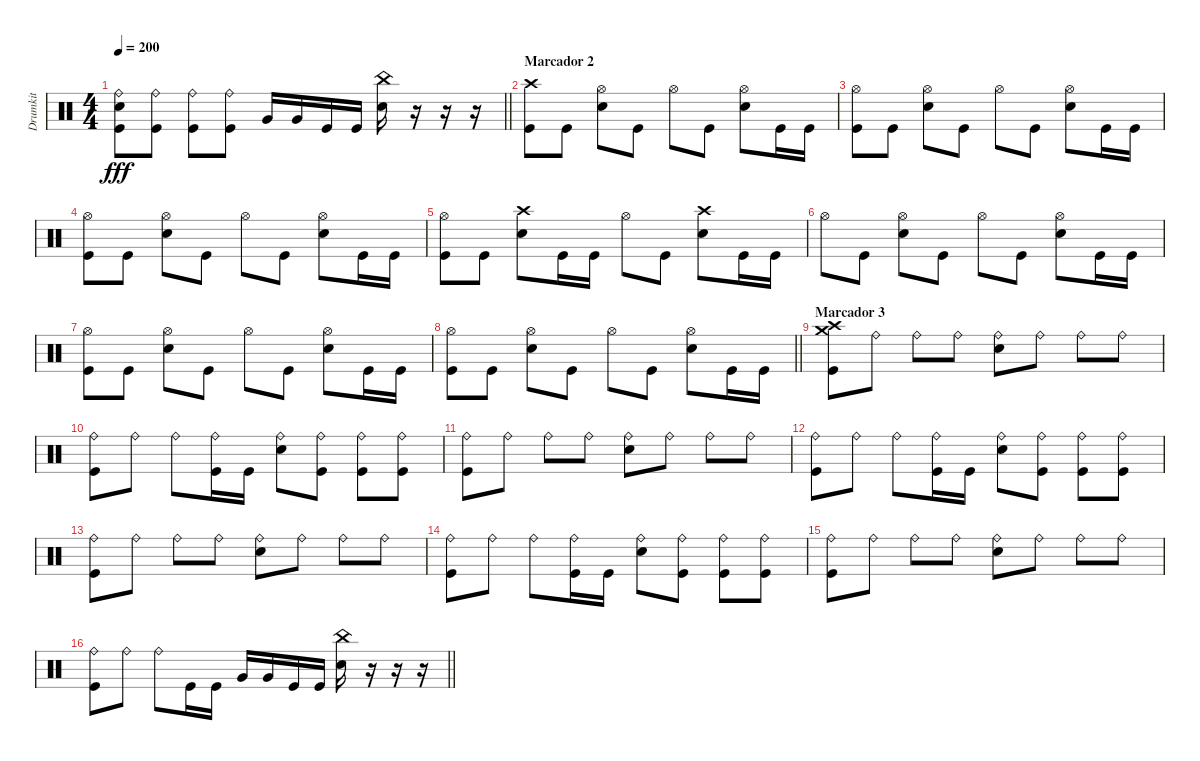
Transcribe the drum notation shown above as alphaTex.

\track ("Drumkit" "Drumkit") {instrument percussion}
\staff {score}
\articulation defaults
\ts (4 4)
\tempo 200
\clef neutral
\barLineRight lightlight
\ks c
("Snare (hit) 2" "Ride (bell)" "Kick (hit)").8{dy fff} ("Ride (bell)" "Kick (hit)").8 ("Ride (bell)" "Kick (hit)").8 ("Ride (bell)" "Kick (hit)").8 "Very Low Tom (hit)".16 "Very Low Tom (hit)".16 "Kick (hit)".16 "Kick (hit)".16 ("China (hit)" "Snare (hit) 2").16 r.16 r.16 r.16 |
\section ("" "Marcador 2")
("Crash high (hit)" "Kick (hit)").8 "Kick (hit)".8 ("Hi-Hat (open)" "Snare (hit) 2").8 "Kick (hit)".8 "Hi-Hat (open)".8 "Kick (hit)".8 ("Hi-Hat (open)" "Snare (hit) 2").8 "Kick (hit)".16 "Kick (hit)".16 |
("Hi-Hat (open)" "Kick (hit)").8 "Kick (hit)".8 ("Hi-Hat (open)" "Snare (hit) 2").8 "Kick (hit)".8 "Hi-Hat (open)".8 "Kick (hit)".8 ("Hi-Hat (open)" "Snare (hit) 2").8 "Kick (hit)".16 "Kick (hit)".16 |
("Hi-Hat (open)" "Kick (hit)").8 "Kick (hit)".8 ("Hi-Hat (open)" "Snare (hit) 2").8 "Kick (hit)".8 "Hi-Hat (open)".8 "Kick (hit)".8 ("Hi-Hat (open)" "Snare (hit) 2").8 "Kick (hit)".16 "Kick (hit)".16 |
("Hi-Hat (open)" "Kick (hit)").8 "Kick (hit)".8 ("Crash high (hit)" "Snare (hit) 2").8 "Kick (hit)".16 "Kick (hit)".16 "Hi-Hat (open)".8 "Kick (hit)".8 ("Crash high (hit)" "Snare (hit) 2").8 "Kick (hit)".16 "Kick (hit)".16 |
"Hi-Hat (open)".8 "Kick (hit)".8 ("Hi-Hat (open)" "Snare (hit) 2").8 "Kick (hit)".8 "Hi-Hat (open)".8 "Kick (hit)".8 ("Hi-Hat (open)" "Snare (hit) 2").8 "Kick (hit)".16 "Kick (hit)".16 |
("Hi-Hat (open)" "Kick (hit)").8 "Kick (hit)".8 ("Hi-Hat (open)" "Snare (hit) 2").8 "Kick (hit)".8 "Hi-Hat (open)".8 "Kick (hit)".8 ("Hi-Hat (open)" "Snare (hit) 2").8 "Kick (hit)".16 "Kick (hit)".16 |
\barLineRight lightlight
("Hi-Hat (open)" "Kick (hit)").8 "Kick (hit)".8 ("Hi-Hat (open)" "Snare (hit) 2").8 "Kick (hit)".8 "Hi-Hat (open)".8 "Kick (hit)".8 ("Hi-Hat (open)" "Snare (hit) 2").8 "Kick (hit)".16 "Kick (hit)".16 |
\section ("" "Marcador 3")
("Crash high (hit)" "Crash medium (hit)" "Kick (hit)").8 "Ride (bell)".8 "Ride (bell)".8 "Ride (bell)".8 ("Ride (bell)" "Snare (hit) 2").8 "Ride (bell)".8 "Ride (bell)".8 "Ride (bell)".8 |
("Ride (bell)" "Kick (hit)").8 "Ride (bell)".8 "Ride (bell)".8 ("Ride (bell)" "Kick (hit)").16 "Kick (hit)".16 ("Ride (bell)" "Snare (hit) 2").8 ("Ride (bell)" "Kick (hit)").8 ("Ride (bell)" "Kick (hit)").8 ("Ride (bell)" "Kick (hit)").8 |
("Ride (bell)" "Kick (hit)").8 "Ride (bell)".8 "Ride (bell)".8 "Ride (bell)".8 ("Ride (bell)" "Snare (hit) 2").8 "Ride (bell)".8 "Ride (bell)".8 "Ride (bell)".8 |
("Ride (bell)" "Kick (hit)").8 "Ride (bell)".8 "Ride (bell)".8 ("Ride (bell)" "Kick (hit)").16 "Kick (hit)".16 ("Ride (bell)" "Snare (hit) 2").8 ("Ride (bell)" "Kick (hit)").8 ("Ride (bell)" "Kick (hit)").8 ("Ride (bell)" "Kick (hit)").8 |
("Ride (bell)" "Kick (hit)").8 "Ride (bell)".8 "Ride (bell)".8 "Ride (bell)".8 ("Ride (bell)" "Snare (hit) 2").8 "Ride (bell)".8 "Ride (bell)".8 "Ride (bell)".8 |
("Ride (bell)" "Kick (hit)").8 "Ride (bell)".8 "Ride (bell)".8 ("Ride (bell)" "Kick (hit)").16 "Kick (hit)".16 ("Ride (bell)" "Snare (hit) 2").8 ("Ride (bell)" "Kick (hit)").8 ("Ride (bell)" "Kick (hit)").8 ("Ride (bell)" "Kick (hit)").8 |
("Ride (bell)" "Kick (hit)").8 "Ride (bell)".8 "Ride (bell)".8 "Ride (bell)".8 ("Ride (bell)" "Snare (hit) 2").8 "Ride (bell)".8 "Ride (bell)".8 "Ride (bell)".8 |
\barLineRight lightlight
("Ride (bell)" "Kick (hit)").8 "Ride (bell)".8 "Ride (bell)".8 "Kick (hit)".16 "Kick (hit)".16 "Very Low Tom (hit)".16 "Very Low Tom (hit)".16 "Kick (hit)".16 "Kick (hit)".16 ("China (hit)" "Snare (hit) 2").16 r.16 r.16 r.16
